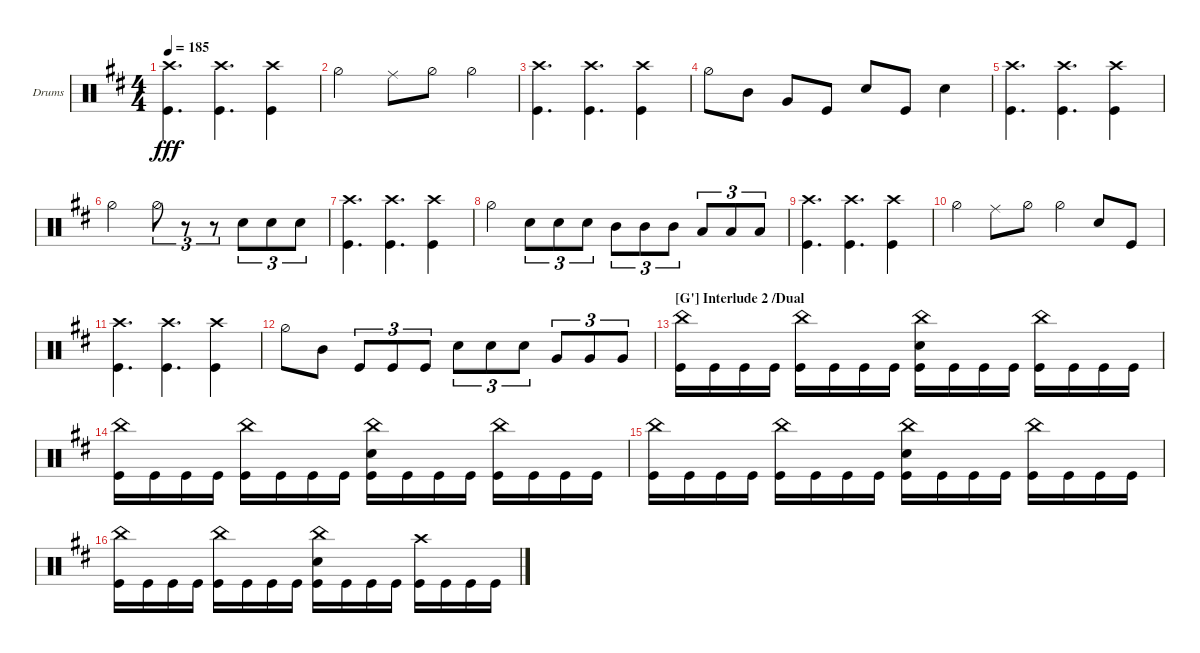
\defaultSystemsLayout 4
\bracketExtendMode groupsimilarinstruments
\firstSystemTrackNameOrientation horizontal
\otherSystemsTrackNameOrientation horizontal
\track ("Drumkit" "Drums") {instrument percussion}
\staff {score}
\articulation defaults
\ts (4 4)
\tempo 185
\clef neutral
\ks bminor
("Kick (hit)" "Crash high (hit)").4{d dy fff} ("Kick (hit)" "Crash high (hit)").4{d} ("Kick (hit)" "Crash high (hit)").4 |
"Hi-Hat (half)".2 "Ride (middle)".8 "Hi-Hat (half)".8 "Hi-Hat (half)".4 |
("Kick (hit)" "Crash high (hit)").4{d} ("Kick (hit)" "Crash high (hit)").4{d} ("Kick (hit)" "Crash high (hit)").4 |
"Hi-Hat (half)".8 "Mid Tom (hit)".8 "Very Low Tom (hit)".8 "Kick (hit)".8 "Snare (hit) 2".8 "Kick (hit)".8 "Snare (hit) 2".4 |
("Kick (hit)" "Crash high (hit)").4{d} ("Kick (hit)" "Crash high (hit)").4{d} ("Kick (hit)" "Crash high (hit)").4 |
"Hi-Hat (half)".2 "Hi-Hat (half)".8{tu (3 2)} r.8{tu (3 2)} r.8{tu (3 2)} "Snare (hit) 2".8{tu (3 2)} "Snare (hit) 2".8{tu (3 2)} "Snare (hit) 2".8{tu (3 2)} |
("Kick (hit)" "Crash high (hit)").4{d} ("Kick (hit)" "Crash high (hit)").4{d} ("Kick (hit)" "Crash high (hit)").4 |
"Hi-Hat (half)".4 "Snare (hit) 2".8{tu (3 2)} "Snare (hit) 2".8{tu (3 2)} "Snare (hit) 2".8{tu (3 2)} "Mid Tom (hit)".8{tu (3 2)} "Mid Tom (hit)".8{tu (3 2)} "Mid Tom (hit)".8{tu (3 2)} "Low Tom (hit)".8{tu (3 2)} "Low Tom (hit)".8{tu (3 2)} "Low Tom (hit)".8{tu (3 2)} |
("Kick (hit)" "Crash high (hit)").4{d} ("Kick (hit)" "Crash high (hit)").4{d} ("Kick (hit)" "Crash high (hit)").4 |
"Hi-Hat (half)".4 "Ride (middle)".8 "Hi-Hat (half)".8 "Hi-Hat (half)".4 "Snare (hit) 2".8 "Kick (hit)".8 |
("Kick (hit)" "Crash high (hit)").4{d} ("Kick (hit)" "Crash high (hit)").4{d} ("Kick (hit)" "Crash high (hit)").4 |
"Hi-Hat (half)".8 "Mid Tom (hit)".8 "Kick (hit)".8{tu (3 2)} "Kick (hit)".8{tu (3 2)} "Kick (hit)".8{tu (3 2)} "Snare (hit) 2".8{tu (3 2)} "Snare (hit) 2".8{tu (3 2)} "Snare (hit) 2".8{tu (3 2)} "Very Low Tom (hit)".8{tu (3 2)} "Very Low Tom (hit)".8{tu (3 2)} "Very Low Tom (hit)".8{tu (3 2)} |
\section ("G'" "Interlude 2 /Dual")
("Kick (hit)" "China (hit)").16 "Kick (hit)".16 "Kick (hit)".16 "Kick (hit)".16 ("Kick (hit)" "China (hit)").16 "Kick (hit)".16 "Kick (hit)".16 "Kick (hit)".16 ("Kick (hit)" "China (hit)" "Snare (hit) 2").16 "Kick (hit)".16 "Kick (hit)".16 "Kick (hit)".16 ("Kick (hit)" "China (hit)").16 "Kick (hit)".16 "Kick (hit)".16 "Kick (hit)".16 |
("Kick (hit)" "China (hit)").16 "Kick (hit)".16 "Kick (hit)".16 "Kick (hit)".16 ("Kick (hit)" "China (hit)").16 "Kick (hit)".16 "Kick (hit)".16 "Kick (hit)".16 ("Kick (hit)" "China (hit)" "Snare (hit) 2").16 "Kick (hit)".16 "Kick (hit)".16 "Kick (hit)".16 ("Kick (hit)" "China (hit)").16 "Kick (hit)".16 "Kick (hit)".16 "Kick (hit)".16 |
("Kick (hit)" "China (hit)").16 "Kick (hit)".16 "Kick (hit)".16 "Kick (hit)".16 ("Kick (hit)" "China (hit)").16 "Kick (hit)".16 "Kick (hit)".16 "Kick (hit)".16 ("Kick (hit)" "China (hit)" "Snare (hit) 2").16 "Kick (hit)".16 "Kick (hit)".16 "Kick (hit)".16 ("Kick (hit)" "China (hit)").16 "Kick (hit)".16 "Kick (hit)".16 "Kick (hit)".16 |
("Kick (hit)" "China (hit)").16 "Kick (hit)".16 "Kick (hit)".16 "Kick (hit)".16 ("Kick (hit)" "China (hit)").16 "Kick (hit)".16 "Kick (hit)".16 "Kick (hit)".16 ("Kick (hit)" "China (hit)" "Snare (hit) 2").16 "Kick (hit)".16 "Kick (hit)".16 "Kick (hit)".16 ("Kick (hit)" "Crash high (hit)").16 "Kick (hit)".16 "Kick (hit)".16 "Kick (hit)".16
